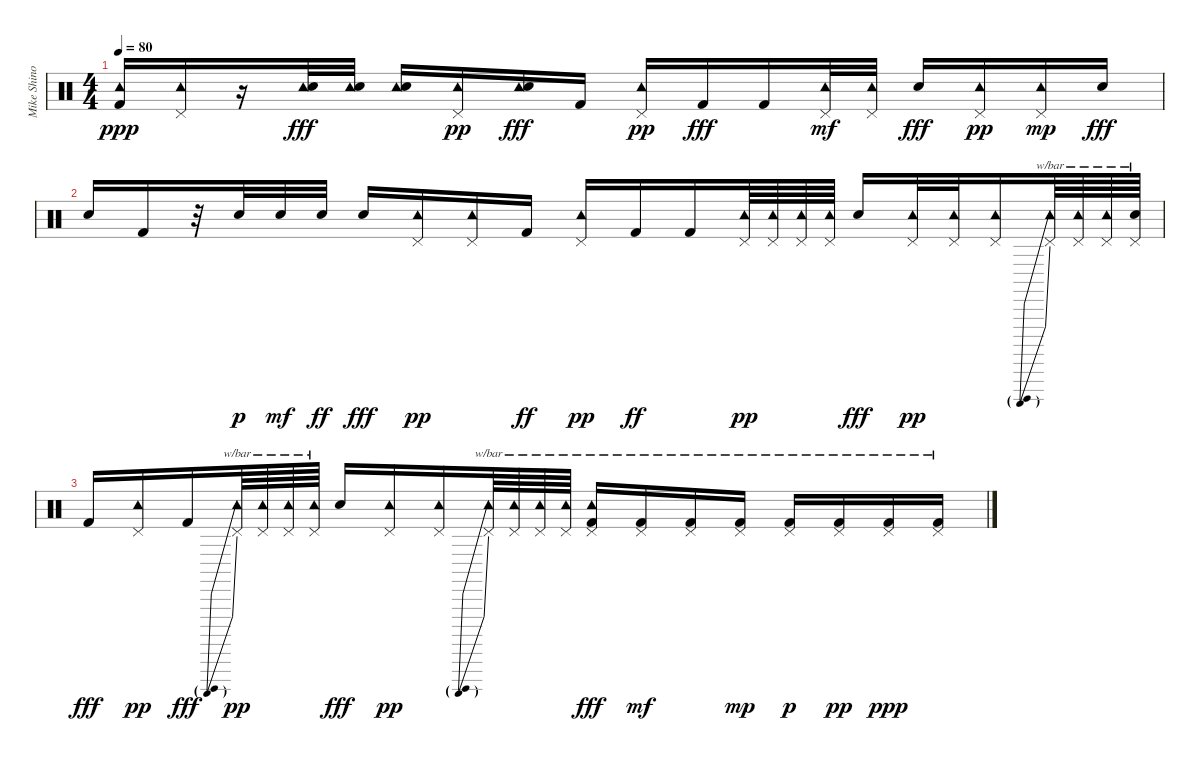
\track ("Mike Shinoda - Percussion" "Mike Shino") {instrument percussion}
\staff {score}
\articulation defaults
\ts (4 4)
\tempo 80
\clef neutral
\ks c
("Tambourine (hit)" "Kick (hit) 2").16{dy ppp balance 8} ("Tambourine (hit)" "Pedal Hi-Hat (hit)").16 r.16 ("Tambourine (hit)" "Electric Snare (hit)").32{dy fff} ("Tambourine (hit)" "Electric Snare (hit)").32 ("Tambourine (hit)" "Electric Snare (hit)").16 ("Tambourine (hit)" "Pedal Hi-Hat (hit)").16{dy pp} ("Tambourine (hit)" "Electric Snare (hit)").16{dy fff} "Kick (hit) 2".16 ("Tambourine (hit)" "Pedal Hi-Hat (hit)").16{dy pp} "Kick (hit) 2".16{dy fff} "Kick (hit) 2".16 ("Tambourine (hit)" "Pedal Hi-Hat (hit)").32{dy mf} ("Tambourine (hit)" "Pedal Hi-Hat (hit)").32 "Electric Snare (hit)".16{dy fff} ("Tambourine (hit)" "Pedal Hi-Hat (hit)").16{dy pp} ("Tambourine (hit)" "Pedal Hi-Hat (hit)").16{dy mp} "Electric Snare (hit)".16{dy fff} |
"Electric Snare (hit)".16 "Kick (hit) 2".16 r.32 "Electric Snare (hit)".32{dy p} "Electric Snare (hit)".32{dy mf} "Electric Snare (hit)".32{dy ff} "Electric Snare (hit)".16{dy fff} ("Tambourine (hit)" "Pedal Hi-Hat (hit)").16{dy pp} ("Tambourine (hit)" "Pedal Hi-Hat (hit)").16 "Kick (hit) 2".16{dy ff} ("Tambourine (hit)" "Pedal Hi-Hat (hit)").16{dy pp} "Kick (hit) 2".16{dy ff} "Kick (hit) 2".16 ("Tambourine (hit)" "Pedal Hi-Hat (hit)").64{dy pp} ("Tambourine (hit)" "Pedal Hi-Hat (hit)").64 ("Tambourine (hit)" "Pedal Hi-Hat (hit)").64 ("Tambourine (hit)" "Pedal Hi-Hat (hit)").64 "Electric Snare (hit)".16{dy fff} ("Tambourine (hit)" "Pedal Hi-Hat (hit)").32{dy pp} ("Tambourine (hit)" "Pedal Hi-Hat (hit)").32 ("Tambourine (hit)" "Pedal Hi-Hat (hit)").16 ("Tambourine (hit)" "Pedal Hi-Hat (hit)").64{tbe (predive default 0 -2 60 -2)} ("Tambourine (hit)" "Pedal Hi-Hat (hit)").64{tbe (hold default 0 -2 60 -2)} ("Tambourine (hit)" "Pedal Hi-Hat (hit)").64{tbe (hold default 0 -2 60 -2)} ("Snare (hit)" "Pedal Hi-Hat (hit)").64{tbe (hold default 0 -2 60 -2)} |
"Kick (hit) 2".16{dy fff} ("Tambourine (hit)" "Pedal Hi-Hat (hit)").16{dy pp} "Kick (hit) 2".16{dy fff} ("Tambourine (hit)" "Pedal Hi-Hat (hit)").64{tbe (predive default 0 -4 60 -4) dy pp} ("Tambourine (hit)" "Pedal Hi-Hat (hit)").64{tbe (hold default 0 -4 60 -4)} ("Tambourine (hit)" "Pedal Hi-Hat (hit)").64{tbe (hold default 0 -4 60 -4)} ("Tambourine (hit)" "Pedal Hi-Hat (hit)").64{tbe (hold default 0 -4 60 -4)} "Electric Snare (hit)".16{dy fff} ("Tambourine (hit)" "Pedal Hi-Hat (hit)").16{dy pp} ("Tambourine (hit)" "Pedal Hi-Hat (hit)").16 ("Tambourine (hit)" "Pedal Hi-Hat (hit)").64{tbe (predive default 0 -6 60 -6)} ("Tambourine (hit)" "Pedal Hi-Hat (hit)").64{tbe (hold default 0 -6 60 -6)} ("Tambourine (hit)" "Pedal Hi-Hat (hit)").64{tbe (hold default 0 -6 60 -6)} ("Tambourine (hit)" "Pedal Hi-Hat (hit)").64{tbe (hold default 0 -6 60 -6)} ("Tambourine (hit)" "Pedal Hi-Hat (hit)" "Kick (hit) 2").16{tbe (hold default 0 -6 60 -6) dy fff} ("Pedal Hi-Hat (hit)" "Kick (hit) 2").16{tbe (hold default 0 -8 60 -8) dy mf} ("Pedal Hi-Hat (hit)" "Kick (hit) 2").16{tbe (hold default 0 -10 60 -10)} ("Pedal Hi-Hat (hit)" "Kick (hit) 2").16{tbe (hold default 0 -12 60 -12) dy mp} ("Pedal Hi-Hat (hit)" "Kick (hit) 2").16{tbe (hold default 0 -14 60 -14) dy p} ("Pedal Hi-Hat (hit)" "Kick (hit) 2").16{tbe (hold default 0 -16 60 -16) dy pp} ("Pedal Hi-Hat (hit)" "Kick (hit) 2").16{tbe (hold default 0 -18 60 -18) dy ppp} ("Pedal Hi-Hat (hit)" "Kick (hit) 2").16{tbe (hold default 0 -20 60 -20)}
